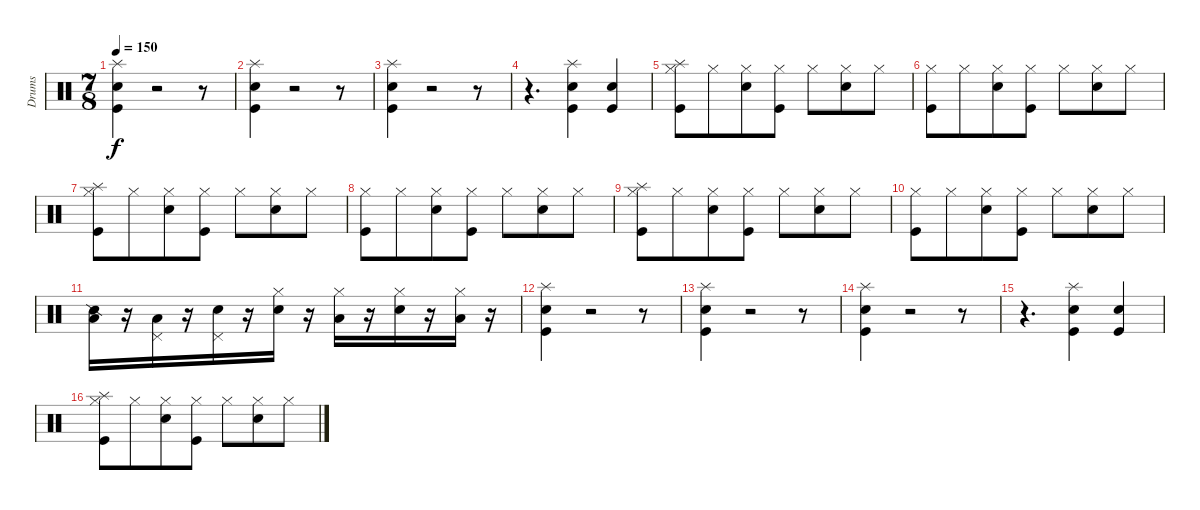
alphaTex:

\track ("Drums" "Drums") {instrument percussion}
\staff {score}
\articulation defaults
\ts (7 8)
\tempo 150
\clef neutral
\ks c
("Splash (hit)" "Snare (hit) 2" "Kick (hit)").4{dy f} r.2 r.8 |
("Splash (hit)" "Snare (hit) 2" "Kick (hit)").4 r.2 r.8 |
("Splash (hit)" "Snare (hit) 2" "Kick (hit)").4 r.2 r.8 |
r.4{d} ("Splash (hit)" "Snare (hit) 2" "Kick (hit)").4 ("Snare (hit) 2" "Kick (hit)").4 |
("Splash (hit)" "Kick (hit)" "Hi-Hat (closed)").8 "Hi-Hat (closed)".8 ("Snare (hit) 2" "Hi-Hat (closed)").8 ("Kick (hit)" "Hi-Hat (closed)").8 "Hi-Hat (closed)".8 ("Snare (hit) 2" "Hi-Hat (closed)").8 "Hi-Hat (closed)".8 |
("Kick (hit)" "Hi-Hat (closed)").8 "Hi-Hat (closed)".8 ("Snare (hit) 2" "Hi-Hat (closed)").8 ("Kick (hit)" "Hi-Hat (closed)").8 "Hi-Hat (closed)".8 ("Snare (hit) 2" "Hi-Hat (closed)").8 "Hi-Hat (closed)".8 |
("Splash (hit)" "Kick (hit)" "Hi-Hat (closed)").8 "Hi-Hat (closed)".8 ("Snare (hit) 2" "Hi-Hat (closed)").8 ("Kick (hit)" "Hi-Hat (closed)").8 "Hi-Hat (closed)".8 ("Snare (hit) 2" "Hi-Hat (closed)").8 "Hi-Hat (closed)".8 |
("Kick (hit)" "Hi-Hat (closed)").8 "Hi-Hat (closed)".8 ("Snare (hit) 2" "Hi-Hat (closed)").8 ("Kick (hit)" "Hi-Hat (closed)").8 "Hi-Hat (closed)".8 ("Snare (hit) 2" "Hi-Hat (closed)").8 "Hi-Hat (closed)".8 |
("Splash (hit)" "Kick (hit)" "Hi-Hat (closed)").8 "Hi-Hat (closed)".8 ("Snare (hit) 2" "Hi-Hat (closed)").8 ("Kick (hit)" "Hi-Hat (closed)").8 "Hi-Hat (closed)".8 ("Snare (hit) 2" "Hi-Hat (closed)").8 "Hi-Hat (closed)".8 |
("Kick (hit)" "Hi-Hat (closed)").8 "Hi-Hat (closed)".8 ("Snare (hit) 2" "Hi-Hat (closed)").8 ("Kick (hit)" "Hi-Hat (closed)").8 "Hi-Hat (closed)".8 ("Snare (hit) 2" "Hi-Hat (closed)").8 "Hi-Hat (closed)".8 |
("Low Tom (hit)" "Snare (side stick) 2").16 r.16 ("Pedal Hi-Hat (hit)" "Low Tom (hit)").16 r.16 ("Pedal Hi-Hat (hit)" "Snare (hit) 2").16 r.16 ("Hi-Hat (closed)" "Snare (hit) 2").16 r.16 ("Hi-Hat (closed)" "Low Tom (hit)").16 r.16 ("Hi-Hat (closed)" "Snare (hit) 2").16 r.16 ("Hi-Hat (closed)" "Low Tom (hit)").16 r.16 |
("Splash (hit)" "Snare (hit) 2" "Kick (hit)").4 r.2 r.8 |
("Splash (hit)" "Snare (hit) 2" "Kick (hit)").4 r.2 r.8 |
("Splash (hit)" "Snare (hit) 2" "Kick (hit)").4 r.2 r.8 |
r.4{d} ("Splash (hit)" "Snare (hit) 2" "Kick (hit)").4 ("Snare (hit) 2" "Kick (hit)").4 |
("Splash (hit)" "Kick (hit)" "Hi-Hat (closed)").8 "Hi-Hat (closed)".8 ("Snare (hit) 2" "Hi-Hat (closed)").8 ("Kick (hit)" "Hi-Hat (closed)").8 "Hi-Hat (closed)".8 ("Snare (hit) 2" "Hi-Hat (closed)").8 "Hi-Hat (closed)".8
